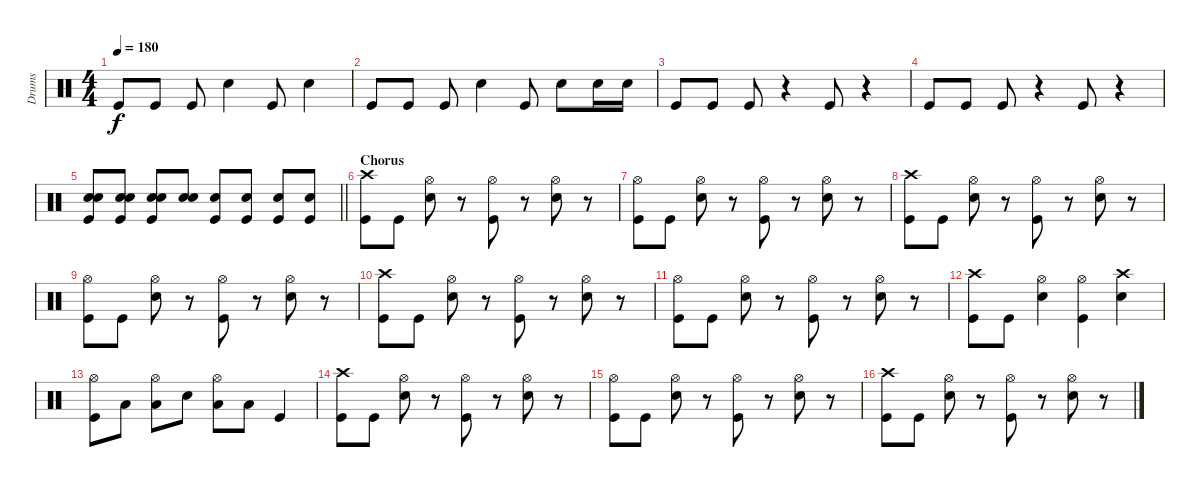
\track ("Drums" "Drums") {instrument percussion}
\staff {score}
\articulation defaults
\ts (4 4)
\tempo 180
\clef neutral
\ks c "Kick (hit)".8{dy f} "Kick (hit)".8 "Kick (hit)".8 "Snare (hit) 2".4 "Kick (hit)".8 "Snare (hit) 2".4
|
"Kick (hit)".8 "Kick (hit)".8 "Kick (hit)".8 "Snare (hit) 2".4 "Kick (hit)".8 "Snare (hit) 2".8 "Snare (hit) 2".16 "Snare (hit) 2".16 |
"Kick (hit)".8 "Kick (hit)".8 "Kick (hit)".8 r.4 "Kick (hit)".8 r.4 |
"Kick (hit)".8 "Kick (hit)".8 "Kick (hit)".8 r.4 "Kick (hit)".8 r.4 |
\barLineRight lightlight
("Electric Snare (hit)" "Snare (hit) 2" "Kick (hit)").8 ("Electric Snare (hit)" "Snare (hit) 2" "Kick (hit)").8 ("Electric Snare (hit)" "Snare (hit) 2" "Kick (hit)").8 ("Electric Snare (hit)" "Snare (hit) 2").8 ("Snare (hit) 2" "Kick (hit)").8 ("Snare (hit) 2" "Kick (hit)").8 ("Snare (hit) 2" "Kick (hit)").8 ("Snare (hit) 2" "Kick (hit)").8 |
\section ("" "Chorus")
("Crash high (hit)" "Kick (hit)").8 "Kick (hit)".8 ("Hi-Hat (open)" "Snare (hit) 2").8 r.8 ("Hi-Hat (open)" "Kick (hit)").8 r.8 ("Hi-Hat (open)" "Snare (hit) 2").8 r.8 |
("Hi-Hat (open)" "Kick (hit)").8 "Kick (hit)".8 ("Hi-Hat (open)" "Snare (hit) 2").8 r.8 ("Hi-Hat (open)" "Kick (hit)").8 r.8 ("Hi-Hat (open)" "Snare (hit) 2").8 r.8 |
("Crash high (hit)" "Kick (hit)").8 "Kick (hit)".8 ("Hi-Hat (open)" "Snare (hit) 2").8 r.8 ("Hi-Hat (open)" "Kick (hit)").8 r.8 ("Hi-Hat (open)" "Snare (hit) 2").8 r.8 |
("Hi-Hat (open)" "Kick (hit)").8 "Kick (hit)".8 ("Hi-Hat (open)" "Snare (hit) 2").8 r.8 ("Hi-Hat (open)" "Kick (hit)").8 r.8 ("Hi-Hat (open)" "Snare (hit) 2").8 r.8 |
("Crash high (hit)" "Kick (hit)").8 "Kick (hit)".8 ("Hi-Hat (open)" "Snare (hit) 2").8 r.8 ("Hi-Hat (open)" "Kick (hit)").8 r.8 ("Hi-Hat (open)" "Snare (hit) 2").8 r.8 |
("Hi-Hat (open)" "Kick (hit)").8 "Kick (hit)".8 ("Hi-Hat (open)" "Snare (hit) 2").8 r.8 ("Hi-Hat (open)" "Kick (hit)").8 r.8 ("Hi-Hat (open)" "Snare (hit) 2").8 r.8 |
("Crash high (hit)" "Kick (hit)").8 "Kick (hit)".8 ("Hi-Hat (open)" "Snare (hit) 2").4 ("Hi-Hat (open)" "Kick (hit)").4 ("Crash high (hit)" "Snare (hit) 2").4 |
("Hi-Hat (open)" "Kick (hit)").8 "Low Tom (hit)".8 ("Hi-Hat (open)" "Low Tom (hit)").8 "Snare (hit) 2".8 ("Hi-Hat (open)" "Low Tom (hit)").8 "Low Tom (hit)".8 "Kick (hit)".4 |
("Crash high (hit)" "Kick (hit)").8 "Kick (hit)".8 ("Hi-Hat (open)" "Snare (hit) 2").8 r.8 ("Hi-Hat (open)" "Kick (hit)").8 r.8 ("Hi-Hat (open)" "Snare (hit) 2").8 r.8 |
("Hi-Hat (open)" "Kick (hit)").8 "Kick (hit)".8 ("Hi-Hat (open)" "Snare (hit) 2").8 r.8 ("Hi-Hat (open)" "Kick (hit)").8 r.8 ("Hi-Hat (open)" "Snare (hit) 2").8 r.8 |
("Crash high (hit)" "Kick (hit)").8 "Kick (hit)".8 ("Hi-Hat (open)" "Snare (hit) 2").8 r.8 ("Hi-Hat (open)" "Kick (hit)").8 r.8 ("Hi-Hat (open)" "Snare (hit) 2").8 r.8
